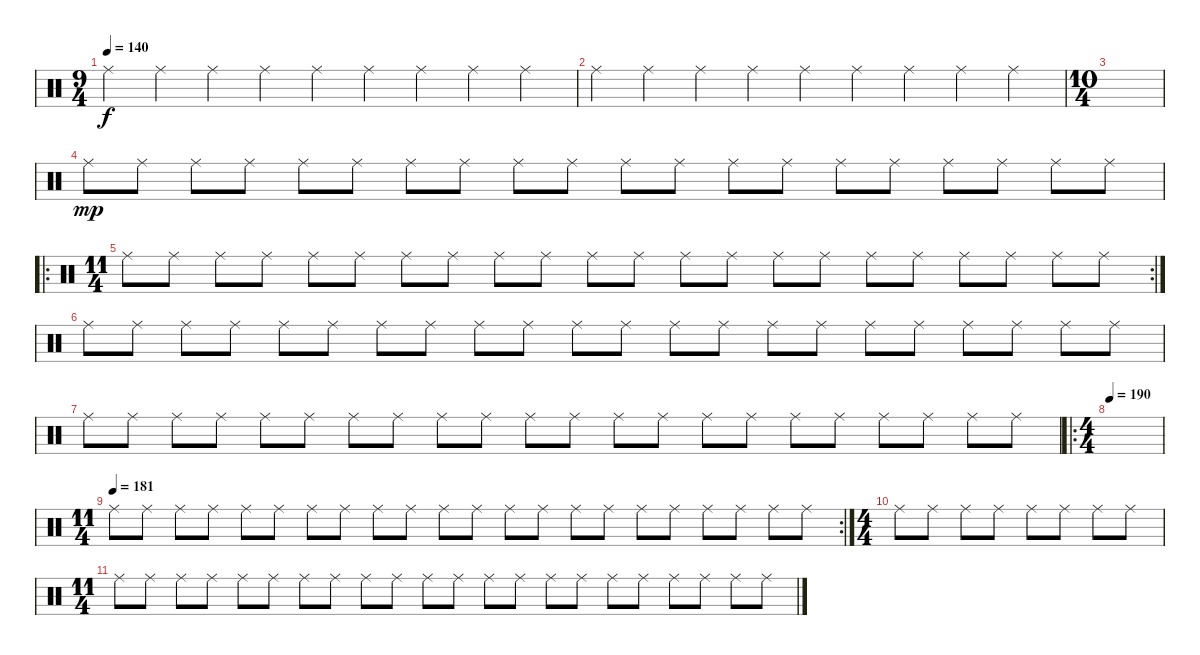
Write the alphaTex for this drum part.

\track "" {instrument percussion}
\staff {score}
\articulation defaults
\ts (9 4)
\tempo 140
\clef neutral
\ks c "Ride (middle)".4{dy f} "Ride (middle)".4 "Ride (middle)".4 "Ride (middle)".4 "Ride (middle)".4 "Ride (middle)".4 "Ride (middle)".4 "Ride (middle)".4 "Ride (middle)".4
|
"Ride (middle)".4 "Ride (middle)".4 "Ride (middle)".4 "Ride (middle)".4 "Ride (middle)".4 "Ride (middle)".4 "Ride (middle)".4 "Ride (middle)".4 "Ride (middle)".4 |
\ts (10 4)
|
"Ride (middle)".8{dy mp} "Ride (middle)".8 "Ride (middle)".8 "Ride (middle)".8 "Ride (middle)".8 "Ride (middle)".8 "Ride (middle)".8 "Ride (middle)".8 "Ride (middle)".8 "Ride (middle)".8 "Ride (middle)".8 "Ride (middle)".8 "Ride (middle)".8 "Ride (middle)".8 "Ride (middle)".8 "Ride (middle)".8 "Ride (middle)".8 "Ride (middle)".8 "Ride (middle)".8 "Ride (middle)".8 |
\ro
\rc 2
\ts (11 4)
"Ride (middle)".8 "Ride (middle)".8 "Ride (middle)".8 "Ride (middle)".8 "Ride (middle)".8 "Ride (middle)".8 "Ride (middle)".8 "Ride (middle)".8 "Ride (middle)".8 "Ride (middle)".8 "Ride (middle)".8 "Ride (middle)".8 "Ride (middle)".8 "Ride (middle)".8 "Ride (middle)".8 "Ride (middle)".8 "Ride (middle)".8 "Ride (middle)".8 "Ride (middle)".8 "Ride (middle)".8 "Ride (middle)".8 "Ride (middle)".8 |
"Ride (middle)".8 "Ride (middle)".8 "Ride (middle)".8 "Ride (middle)".8 "Ride (middle)".8 "Ride (middle)".8 "Ride (middle)".8 "Ride (middle)".8 "Ride (middle)".8 "Ride (middle)".8 "Ride (middle)".8 "Ride (middle)".8 "Ride (middle)".8 "Ride (middle)".8 "Ride (middle)".8 "Ride (middle)".8 "Ride (middle)".8 "Ride (middle)".8 "Ride (middle)".8 "Ride (middle)".8 "Ride (middle)".8 "Ride (middle)".8 |
"Ride (middle)".8 "Ride (middle)".8 "Ride (middle)".8 "Ride (middle)".8 "Ride (middle)".8 "Ride (middle)".8 "Ride (middle)".8 "Ride (middle)".8 "Ride (middle)".8 "Ride (middle)".8 "Ride (middle)".8 "Ride (middle)".8 "Ride (middle)".8 "Ride (middle)".8 "Ride (middle)".8 "Ride (middle)".8 "Ride (middle)".8 "Ride (middle)".8 "Ride (middle)".8 "Ride (middle)".8 "Ride (middle)".8 "Ride (middle)".8 |
\ro
\ts (4 4)
\tempo 160
\tempo 190
|
\rc 2
\ts (11 4)
\tempo (181)
"Ride (middle)".8 "Ride (middle)".8 "Ride (middle)".8 "Ride (middle)".8 "Ride (middle)".8 "Ride (middle)".8 "Ride (middle)".8 "Ride (middle)".8 "Ride (middle)".8 "Ride (middle)".8 "Ride (middle)".8 "Ride (middle)".8 "Ride (middle)".8 "Ride (middle)".8 "Ride (middle)".8 "Ride (middle)".8 "Ride (middle)".8 "Ride (middle)".8 "Ride (middle)".8 "Ride (middle)".8 "Ride (middle)".8 "Ride (middle)".8 |
\ts (4 4)
"Ride (middle)".8 "Ride (middle)".8 "Ride (middle)".8 "Ride (middle)".8 "Ride (middle)".8 "Ride (middle)".8 "Ride (middle)".8 "Ride (middle)".8 |
\ts (11 4)
"Ride (middle)".8 "Ride (middle)".8 "Ride (middle)".8 "Ride (middle)".8 "Ride (middle)".8 "Ride (middle)".8 "Ride (middle)".8 "Ride (middle)".8 "Ride (middle)".8 "Ride (middle)".8 "Ride (middle)".8 "Ride (middle)".8 "Ride (middle)".8 "Ride (middle)".8 "Ride (middle)".8 "Ride (middle)".8 "Ride (middle)".8 "Ride (middle)".8 "Ride (middle)".8 "Ride (middle)".8 "Ride (middle)".8 "Ride (middle)".8
